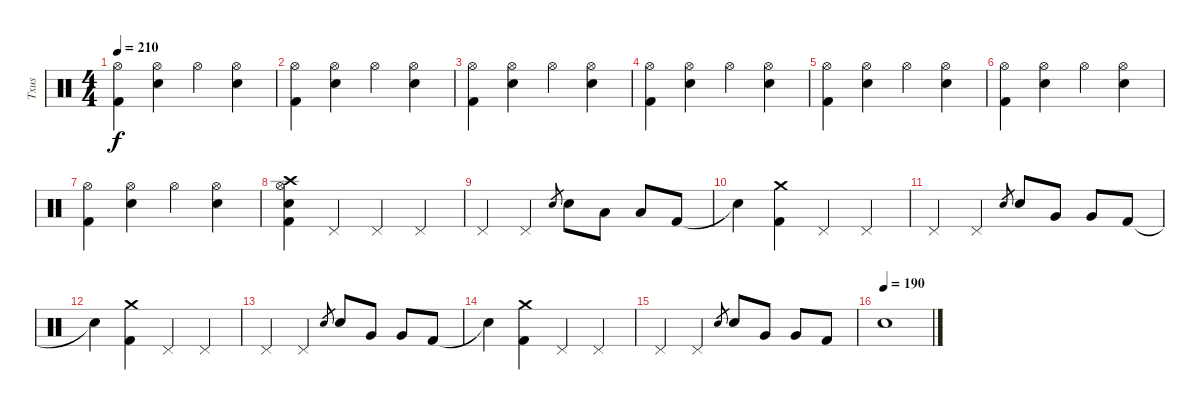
\track ("Txus" "Txus") {instrument percussion}
\staff
\articulation defaults
\ts (4 4)
\tempo 210
\clef neutral
\ks c
("Hi-Hat (open)" "Kick (hit) 2").4{dy f} ("Hi-Hat (open)" "Electric Snare (hit)").4 "Hi-Hat (open)".4 ("Hi-Hat (open)" "Electric Snare (hit)").4 |
("Hi-Hat (open)" "Kick (hit) 2").4 ("Hi-Hat (open)" "Electric Snare (hit)").4 "Hi-Hat (open)".4 ("Hi-Hat (open)" "Electric Snare (hit)").4 |
("Hi-Hat (open)" "Kick (hit) 2").4 ("Hi-Hat (open)" "Electric Snare (hit)").4 "Hi-Hat (open)".4 ("Hi-Hat (open)" "Electric Snare (hit)").4 |
("Hi-Hat (open)" "Kick (hit) 2").4 ("Hi-Hat (open)" "Electric Snare (hit)").4 "Hi-Hat (open)".4 ("Hi-Hat (open)" "Electric Snare (hit)").4 |
("Hi-Hat (open)" "Kick (hit) 2").4 ("Hi-Hat (open)" "Electric Snare (hit)").4 "Hi-Hat (open)".4 ("Hi-Hat (open)" "Electric Snare (hit)").4 |
("Hi-Hat (open)" "Kick (hit) 2").4 ("Hi-Hat (open)" "Electric Snare (hit)").4 "Hi-Hat (open)".4 ("Hi-Hat (open)" "Electric Snare (hit)").4 |
("Hi-Hat (open)" "Kick (hit) 2").4 ("Hi-Hat (open)" "Electric Snare (hit)").4 "Hi-Hat (open)".4 ("Hi-Hat (open)" "Electric Snare (hit)").4 |
("Electric Snare (hit)" "Kick (hit) 2" "Crash high (hit)" "Hi-Hat (open)").4 "Pedal Hi-Hat (hit)".4 "Pedal Hi-Hat (hit)".4 "Pedal Hi-Hat (hit)".4 |
"Pedal Hi-Hat (hit)".4 "Pedal Hi-Hat (hit)".4 "Electric Snare (hit)".8{gr} "Electric Snare (hit)".8 "Low Tom (hit)".8 "Low Tom (hit)".8 "Kick (hit) 2".8 |
"Snare (hit)"{t}.4 ("Kick (hit) 2" "Crash medium (hit)").4 "Pedal Hi-Hat (hit)".4 "Pedal Hi-Hat (hit)".4 |
"Pedal Hi-Hat (hit)".4 "Pedal Hi-Hat (hit)".4 "Electric Snare (hit)".8{gr} "Electric Snare (hit)".8 "Very Low Tom (hit)".8 "Very Low Tom (hit)".8 "Kick (hit) 2".8 |
"Snare (hit)"{t}.4 ("Kick (hit) 2" "Crash medium (hit)").4 "Pedal Hi-Hat (hit)".4 "Pedal Hi-Hat (hit)".4 |
"Pedal Hi-Hat (hit)".4 "Pedal Hi-Hat (hit)".4 "Electric Snare (hit)".8{gr} "Electric Snare (hit)".8 "Very Low Tom (hit)".8 "Very Low Tom (hit)".8 "Kick (hit) 2".8 |
"Snare (hit)"{t}.4 ("Kick (hit) 2" "Crash medium (hit)").4 "Pedal Hi-Hat (hit)".4 "Pedal Hi-Hat (hit)".4 |
"Pedal Hi-Hat (hit)".4 "Pedal Hi-Hat (hit)".4 "Electric Snare (hit)".8{gr} "Electric Snare (hit)".8 "Very Low Tom (hit)".8 "Very Low Tom (hit)".8 "Kick (hit) 2".8 |
\tempo (190)
"Electric Snare (hit)".1
